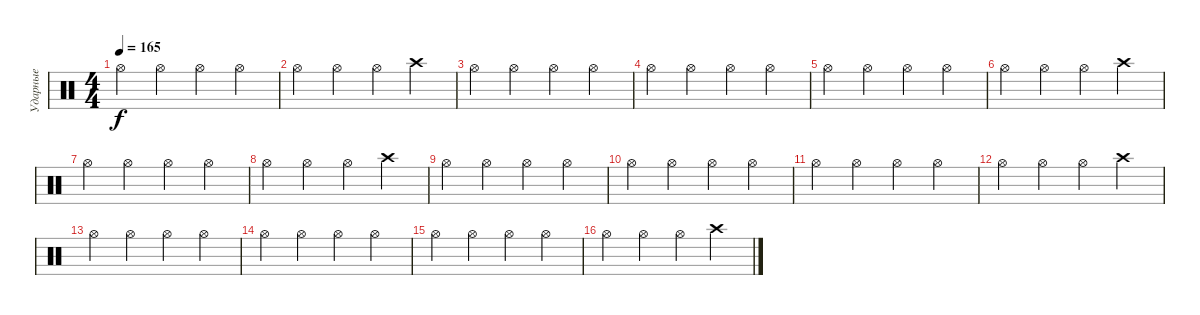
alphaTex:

\track ("Ударные" "Ударные") {instrument percussion}
\staff {score}
\articulation defaults
\ts (4 4)
\tempo 165
\clef neutral
\ks c "Hi-Hat (open)".4{dy f} "Hi-Hat (open)".4 "Hi-Hat (open)".4 "Hi-Hat (open)".4
|
"Hi-Hat (open)".4 "Hi-Hat (open)".4 "Hi-Hat (open)".4 "Crash high (hit)".4 |
"Hi-Hat (open)".4 "Hi-Hat (open)".4 "Hi-Hat (open)".4 "Hi-Hat (open)".4 |
"Hi-Hat (open)".4 "Hi-Hat (open)".4 "Hi-Hat (open)".4 "Hi-Hat (open)".4 |
"Hi-Hat (open)".4 "Hi-Hat (open)".4 "Hi-Hat (open)".4 "Hi-Hat (open)".4 |
"Hi-Hat (open)".4 "Hi-Hat (open)".4 "Hi-Hat (open)".4 "Crash high (hit)".4 |
"Hi-Hat (open)".4 "Hi-Hat (open)".4 "Hi-Hat (open)".4 "Hi-Hat (open)".4 |
"Hi-Hat (open)".4 "Hi-Hat (open)".4 "Hi-Hat (open)".4 "Crash high (hit)".4 |
"Hi-Hat (open)".4 "Hi-Hat (open)".4 "Hi-Hat (open)".4 "Hi-Hat (open)".4 |
"Hi-Hat (open)".4 "Hi-Hat (open)".4 "Hi-Hat (open)".4 "Hi-Hat (open)".4 |
"Hi-Hat (open)".4 "Hi-Hat (open)".4 "Hi-Hat (open)".4 "Hi-Hat (open)".4 |
"Hi-Hat (open)".4 "Hi-Hat (open)".4 "Hi-Hat (open)".4 "Crash high (hit)".4 |
"Hi-Hat (open)".4 "Hi-Hat (open)".4 "Hi-Hat (open)".4 "Hi-Hat (open)".4 |
"Hi-Hat (open)".4 "Hi-Hat (open)".4 "Hi-Hat (open)".4 "Hi-Hat (open)".4 |
"Hi-Hat (open)".4 "Hi-Hat (open)".4 "Hi-Hat (open)".4 "Hi-Hat (open)".4 |
"Hi-Hat (open)".4 "Hi-Hat (open)".4 "Hi-Hat (open)".4 "Crash high (hit)".4
